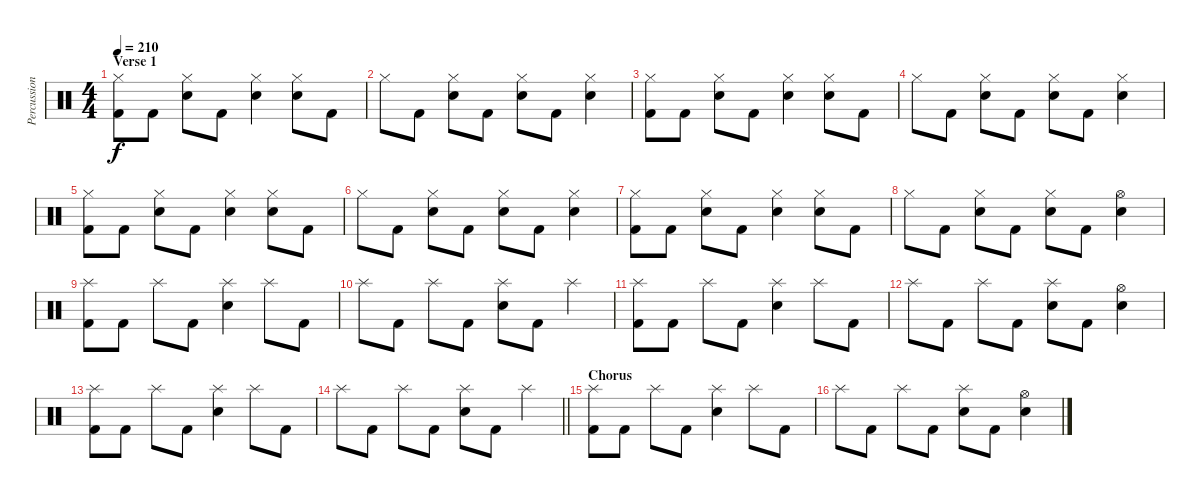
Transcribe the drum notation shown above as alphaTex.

\track ("Percussion" "Percussion") {instrument percussion}
\staff {score}
\articulation defaults
\ts (4 4)
\section ("" "Verse 1")
\tempo 210
\clef neutral
\ks c
("Hi-Hat (closed)" "Kick (hit) 2").8{dy f volume 16} "Kick (hit) 2".8 ("Hi-Hat (closed)" "Electric Snare (hit)").8 "Kick (hit) 2".8 ("Hi-Hat (closed)" "Electric Snare (hit)").4 ("Hi-Hat (closed)" "Electric Snare (hit)").8 "Kick (hit) 2".8 |
"Hi-Hat (closed)".8 "Kick (hit) 2".8 ("Hi-Hat (closed)" "Electric Snare (hit)").8 "Kick (hit) 2".8 ("Hi-Hat (closed)" "Electric Snare (hit)").8 "Kick (hit) 2".8 ("Hi-Hat (closed)" "Electric Snare (hit)").4 |
("Hi-Hat (closed)" "Kick (hit) 2").8 "Kick (hit) 2".8 ("Hi-Hat (closed)" "Electric Snare (hit)").8 "Kick (hit) 2".8 ("Hi-Hat (closed)" "Electric Snare (hit)").4 ("Hi-Hat (closed)" "Electric Snare (hit)").8 "Kick (hit) 2".8 |
"Hi-Hat (closed)".8 "Kick (hit) 2".8 ("Hi-Hat (closed)" "Electric Snare (hit)").8 "Kick (hit) 2".8 ("Hi-Hat (closed)" "Electric Snare (hit)").8 "Kick (hit) 2".8 ("Hi-Hat (closed)" "Electric Snare (hit)").4 |
("Hi-Hat (closed)" "Kick (hit) 2").8 "Kick (hit) 2".8 ("Hi-Hat (closed)" "Electric Snare (hit)").8 "Kick (hit) 2".8 ("Hi-Hat (closed)" "Electric Snare (hit)").4 ("Hi-Hat (closed)" "Electric Snare (hit)").8 "Kick (hit) 2".8 |
"Hi-Hat (closed)".8 "Kick (hit) 2".8 ("Hi-Hat (closed)" "Electric Snare (hit)").8 "Kick (hit) 2".8 ("Hi-Hat (closed)" "Electric Snare (hit)").8 "Kick (hit) 2".8 ("Hi-Hat (closed)" "Electric Snare (hit)").4 |
("Hi-Hat (closed)" "Kick (hit) 2").8 "Kick (hit) 2".8 ("Hi-Hat (closed)" "Electric Snare (hit)").8 "Kick (hit) 2".8 ("Hi-Hat (closed)" "Electric Snare (hit)").4 ("Hi-Hat (closed)" "Electric Snare (hit)").8 "Kick (hit) 2".8 |
"Hi-Hat (closed)".8 "Kick (hit) 2".8 ("Hi-Hat (closed)" "Electric Snare (hit)").8 "Kick (hit) 2".8 ("Hi-Hat (closed)" "Electric Snare (hit)").8 "Kick (hit) 2".8 ("Hi-Hat (open)" "Electric Snare (hit)").4 |
("Splash (hit)" "Kick (hit) 2").8 "Kick (hit) 2".8 "Splash (hit)".8 "Kick (hit) 2".8 ("Splash (hit)" "Electric Snare (hit)").4 "Splash (hit)".8 "Kick (hit) 2".8 |
"Splash (hit)".8 "Kick (hit) 2".8 "Splash (hit)".8 "Kick (hit) 2".8 ("Splash (hit)" "Electric Snare (hit)").8 "Kick (hit) 2".8 "Splash (hit)".4 |
("Splash (hit)" "Kick (hit) 2").8 "Kick (hit) 2".8 "Splash (hit)".8 "Kick (hit) 2".8 ("Splash (hit)" "Electric Snare (hit)").4 "Splash (hit)".8 "Kick (hit) 2".8 |
"Splash (hit)".8 "Kick (hit) 2".8 "Splash (hit)".8 "Kick (hit) 2".8 ("Splash (hit)" "Electric Snare (hit)").8 "Kick (hit) 2".8 ("Hi-Hat (open)" "Electric Snare (hit)").4 |
("Splash (hit)" "Kick (hit) 2").8 "Kick (hit) 2".8 "Splash (hit)".8 "Kick (hit) 2".8 ("Splash (hit)" "Electric Snare (hit)").4 "Splash (hit)".8 "Kick (hit) 2".8 |
\barLineRight lightlight "Splash (hit)".8 "Kick (hit) 2".8 "Splash (hit)".8 "Kick (hit) 2".8
("Splash (hit)" "Electric Snare (hit)").8 "Kick (hit) 2".8 "Splash (hit)".4 |
\section ("" "Chorus")
("Splash (hit)" "Kick (hit) 2").8 "Kick (hit) 2".8 "Splash (hit)".8 "Kick (hit) 2".8 ("Splash (hit)" "Electric Snare (hit)").4 "Splash (hit)".8 "Kick (hit) 2".8 |
"Splash (hit)".8 "Kick (hit) 2".8 "Splash (hit)".8 "Kick (hit) 2".8 ("Splash (hit)" "Electric Snare (hit)").8 "Kick (hit) 2".8 ("Hi-Hat (open)" "Electric Snare (hit)").4
